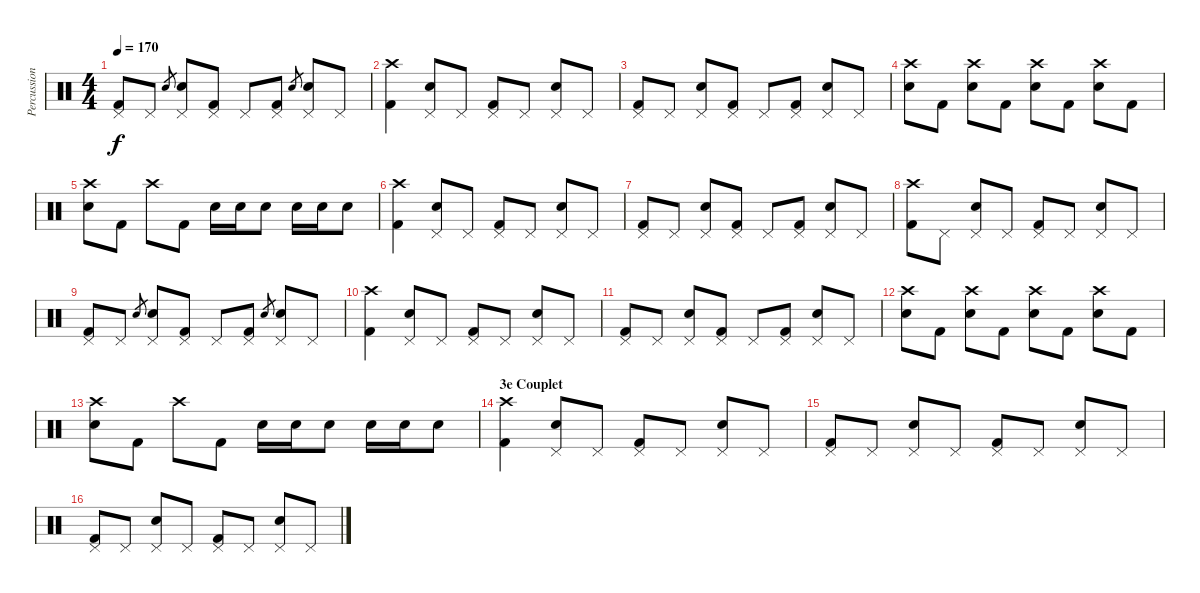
\track ("Percussions" "Percussion") {instrument percussion}
\staff {score}
\articulation defaults
\ts (4 4)
\tempo 170
\clef neutral
\ks c
("Pedal Hi-Hat (hit)" "Kick (hit) 2").8{dy f} "Pedal Hi-Hat (hit)".8 "Electric Snare (hit)".8{gr} ("Pedal Hi-Hat (hit)" "Electric Snare (hit)").8 ("Pedal Hi-Hat (hit)" "Kick (hit) 2").8 "Pedal Hi-Hat (hit)".8 ("Pedal Hi-Hat (hit)" "Kick (hit) 2").8 "Electric Snare (hit)".8{gr} ("Pedal Hi-Hat (hit)" "Electric Snare (hit)").8 "Pedal Hi-Hat (hit)".8 |
("Crash high (hit)" "Kick (hit) 2").4 ("Pedal Hi-Hat (hit)" "Electric Snare (hit)").8 "Pedal Hi-Hat (hit)".8 ("Pedal Hi-Hat (hit)" "Kick (hit) 2").8 "Pedal Hi-Hat (hit)".8 ("Pedal Hi-Hat (hit)" "Electric Snare (hit)").8 "Pedal Hi-Hat (hit)".8 |
("Pedal Hi-Hat (hit)" "Kick (hit) 2").8 "Pedal Hi-Hat (hit)".8 ("Pedal Hi-Hat (hit)" "Electric Snare (hit)").8 ("Pedal Hi-Hat (hit)" "Kick (hit) 2").8 "Pedal Hi-Hat (hit)".8 ("Pedal Hi-Hat (hit)" "Kick (hit) 2").8 ("Pedal Hi-Hat (hit)" "Electric Snare (hit)").8 "Pedal Hi-Hat (hit)".8 |
("Crash high (hit)" "Electric Snare (hit)").8 "Kick (hit) 2".8 ("Crash high (hit)" "Electric Snare (hit)").8 "Kick (hit) 2".8 ("Crash high (hit)" "Electric Snare (hit)").8 "Kick (hit) 2".8 ("Crash high (hit)" "Electric Snare (hit)").8 "Kick (hit) 2".8 |
("Crash high (hit)" "Electric Snare (hit)").8 "Kick (hit) 2".8 "Crash high (hit)".8 "Kick (hit) 2".8 "Electric Snare (hit)".16 "Electric Snare (hit)".16 "Electric Snare (hit)".8 "Electric Snare (hit)".16 "Electric Snare (hit)".16 "Electric Snare (hit)".8 |
("Crash high (hit)" "Kick (hit) 2").4 ("Pedal Hi-Hat (hit)" "Electric Snare (hit)").8 "Pedal Hi-Hat (hit)".8 ("Pedal Hi-Hat (hit)" "Kick (hit) 2").8 "Pedal Hi-Hat (hit)".8 ("Pedal Hi-Hat (hit)" "Electric Snare (hit)").8 "Pedal Hi-Hat (hit)".8 |
("Pedal Hi-Hat (hit)" "Kick (hit) 2").8 "Pedal Hi-Hat (hit)".8 ("Pedal Hi-Hat (hit)" "Electric Snare (hit)").8 ("Pedal Hi-Hat (hit)" "Kick (hit) 2").8 "Pedal Hi-Hat (hit)".8 ("Pedal Hi-Hat (hit)" "Kick (hit) 2").8 ("Pedal Hi-Hat (hit)" "Electric Snare (hit)").8 "Pedal Hi-Hat (hit)".8 |
("Crash high (hit)" "Kick (hit) 2").8 "Pedal Hi-Hat (hit)".8 ("Pedal Hi-Hat (hit)" "Electric Snare (hit)").8 "Pedal Hi-Hat (hit)".8 ("Pedal Hi-Hat (hit)" "Kick (hit) 2").8 "Pedal Hi-Hat (hit)".8 ("Pedal Hi-Hat (hit)" "Electric Snare (hit)").8 "Pedal Hi-Hat (hit)".8 |
("Pedal Hi-Hat (hit)" "Kick (hit) 2").8 "Pedal Hi-Hat (hit)".8 "Electric Snare (hit)".8{gr} ("Pedal Hi-Hat (hit)" "Electric Snare (hit)").8 ("Pedal Hi-Hat (hit)" "Kick (hit) 2").8 "Pedal Hi-Hat (hit)".8 ("Pedal Hi-Hat (hit)" "Kick (hit) 2").8 "Electric Snare (hit)".8{gr} ("Pedal Hi-Hat (hit)" "Electric Snare (hit)").8 "Pedal Hi-Hat (hit)".8 |
("Crash high (hit)" "Kick (hit) 2").4 ("Pedal Hi-Hat (hit)" "Electric Snare (hit)").8 "Pedal Hi-Hat (hit)".8 ("Pedal Hi-Hat (hit)" "Kick (hit) 2").8 "Pedal Hi-Hat (hit)".8 ("Pedal Hi-Hat (hit)" "Electric Snare (hit)").8 "Pedal Hi-Hat (hit)".8 |
("Pedal Hi-Hat (hit)" "Kick (hit) 2").8 "Pedal Hi-Hat (hit)".8 ("Pedal Hi-Hat (hit)" "Electric Snare (hit)").8 ("Pedal Hi-Hat (hit)" "Kick (hit) 2").8 "Pedal Hi-Hat (hit)".8 ("Pedal Hi-Hat (hit)" "Kick (hit) 2").8 ("Pedal Hi-Hat (hit)" "Electric Snare (hit)").8 "Pedal Hi-Hat (hit)".8 |
("Crash high (hit)" "Electric Snare (hit)").8 "Kick (hit) 2".8 ("Crash high (hit)" "Electric Snare (hit)").8 "Kick (hit) 2".8 ("Crash high (hit)" "Electric Snare (hit)").8 "Kick (hit) 2".8 ("Crash high (hit)" "Electric Snare (hit)").8 "Kick (hit) 2".8 |
("Crash high (hit)" "Electric Snare (hit)").8 "Kick (hit) 2".8 "Crash high (hit)".8 "Kick (hit) 2".8 "Electric Snare (hit)".16 "Electric Snare (hit)".16 "Electric Snare (hit)".8 "Electric Snare (hit)".16 "Electric Snare (hit)".16 "Electric Snare (hit)".8 |
\section ("" "3e Couplet")
("Crash high (hit)" "Kick (hit) 2").4 ("Pedal Hi-Hat (hit)" "Electric Snare (hit)").8 "Pedal Hi-Hat (hit)".8 ("Pedal Hi-Hat (hit)" "Kick (hit) 2").8 "Pedal Hi-Hat (hit)".8 ("Pedal Hi-Hat (hit)" "Electric Snare (hit)").8 "Pedal Hi-Hat (hit)".8 |
("Pedal Hi-Hat (hit)" "Kick (hit) 2").8 "Pedal Hi-Hat (hit)".8 ("Pedal Hi-Hat (hit)" "Electric Snare (hit)").8 "Pedal Hi-Hat (hit)".8 ("Pedal Hi-Hat (hit)" "Kick (hit) 2").8 "Pedal Hi-Hat (hit)".8 ("Pedal Hi-Hat (hit)" "Electric Snare (hit)").8 "Pedal Hi-Hat (hit)".8 |
("Pedal Hi-Hat (hit)" "Kick (hit) 2").8 "Pedal Hi-Hat (hit)".8 ("Pedal Hi-Hat (hit)" "Electric Snare (hit)").8 "Pedal Hi-Hat (hit)".8 ("Pedal Hi-Hat (hit)" "Kick (hit) 2").8 "Pedal Hi-Hat (hit)".8 ("Pedal Hi-Hat (hit)" "Electric Snare (hit)").8 "Pedal Hi-Hat (hit)".8
